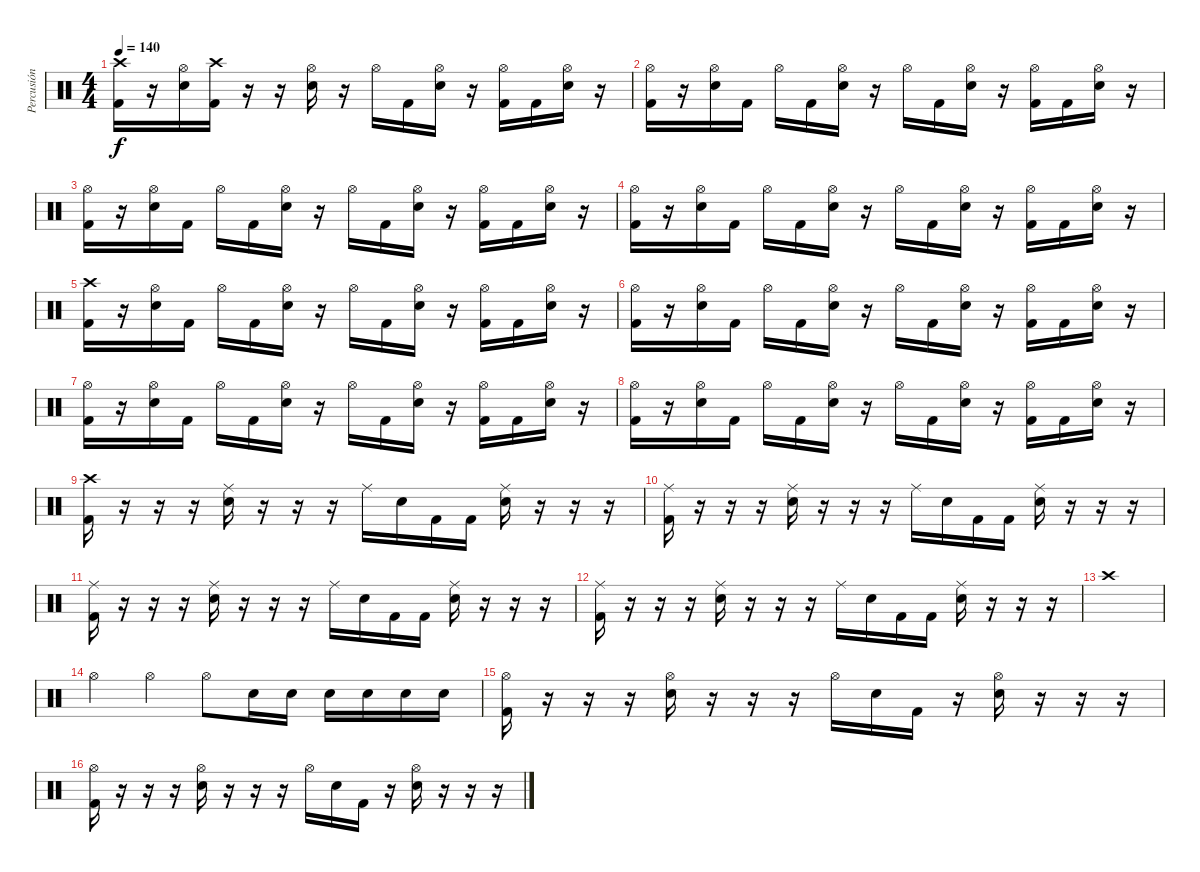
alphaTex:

\track ("Percusión" "Percusión") {instrument percussion}
\staff {score}
\articulation defaults
\ts (4 4)
\tempo 140
\clef neutral
\ks c
("Crash high (hit)" "Kick (hit) 2").16{dy f} r.16 ("Hi-Hat (open)" "Snare (hit) 2").16 ("Crash high (hit)" "Kick (hit) 2").16 r.16 r.16 ("Hi-Hat (open)" "Snare (hit) 2").16 r.16 "Hi-Hat (open)".16 "Kick (hit) 2".16 ("Hi-Hat (open)" "Snare (hit) 2").16 r.16 ("Hi-Hat (open)" "Kick (hit) 2").16 "Kick (hit) 2".16 ("Hi-Hat (open)" "Snare (hit) 2").16 r.16 |
("Hi-Hat (open)" "Kick (hit) 2").16 r.16 ("Hi-Hat (open)" "Snare (hit) 2").16 "Kick (hit) 2".16 "Hi-Hat (open)".16 "Kick (hit) 2".16 ("Hi-Hat (open)" "Snare (hit) 2").16 r.16 "Hi-Hat (open)".16 "Kick (hit) 2".16 ("Hi-Hat (open)" "Snare (hit) 2").16 r.16 ("Hi-Hat (open)" "Kick (hit) 2").16 "Kick (hit) 2".16 ("Hi-Hat (open)" "Snare (hit) 2").16 r.16 |
("Hi-Hat (open)" "Kick (hit) 2").16 r.16 ("Hi-Hat (open)" "Snare (hit) 2").16 "Kick (hit) 2".16 "Hi-Hat (open)".16 "Kick (hit) 2".16 ("Hi-Hat (open)" "Snare (hit) 2").16 r.16 "Hi-Hat (open)".16 "Kick (hit) 2".16 ("Hi-Hat (open)" "Snare (hit) 2").16 r.16 ("Hi-Hat (open)" "Kick (hit) 2").16 "Kick (hit) 2".16 ("Hi-Hat (open)" "Snare (hit) 2").16 r.16 |
("Hi-Hat (open)" "Kick (hit) 2").16 r.16 ("Hi-Hat (open)" "Snare (hit) 2").16 "Kick (hit) 2".16 "Hi-Hat (open)".16 "Kick (hit) 2".16 ("Hi-Hat (open)" "Snare (hit) 2").16 r.16 "Hi-Hat (open)".16 "Kick (hit) 2".16 ("Hi-Hat (open)" "Snare (hit) 2").16 r.16 ("Hi-Hat (open)" "Kick (hit) 2").16 "Kick (hit) 2".16 ("Hi-Hat (open)" "Snare (hit) 2").16 r.16 |
("Crash high (hit)" "Kick (hit) 2").16 r.16 ("Hi-Hat (open)" "Snare (hit) 2").16 "Kick (hit) 2".16 "Hi-Hat (open)".16 "Kick (hit) 2".16 ("Hi-Hat (open)" "Snare (hit) 2").16 r.16 "Hi-Hat (open)".16 "Kick (hit) 2".16 ("Hi-Hat (open)" "Snare (hit) 2").16 r.16 ("Hi-Hat (open)" "Kick (hit) 2").16 "Kick (hit) 2".16 ("Hi-Hat (open)" "Snare (hit) 2").16 r.16 |
("Hi-Hat (open)" "Kick (hit) 2").16 r.16 ("Hi-Hat (open)" "Snare (hit) 2").16 "Kick (hit) 2".16 "Hi-Hat (open)".16 "Kick (hit) 2".16 ("Hi-Hat (open)" "Snare (hit) 2").16 r.16 "Hi-Hat (open)".16 "Kick (hit) 2".16 ("Hi-Hat (open)" "Snare (hit) 2").16 r.16 ("Hi-Hat (open)" "Kick (hit) 2").16 "Kick (hit) 2".16 ("Hi-Hat (open)" "Snare (hit) 2").16 r.16 |
("Hi-Hat (open)" "Kick (hit) 2").16 r.16 ("Hi-Hat (open)" "Snare (hit) 2").16 "Kick (hit) 2".16 "Hi-Hat (open)".16 "Kick (hit) 2".16 ("Hi-Hat (open)" "Snare (hit) 2").16 r.16 "Hi-Hat (open)".16 "Kick (hit) 2".16 ("Hi-Hat (open)" "Snare (hit) 2").16 r.16 ("Hi-Hat (open)" "Kick (hit) 2").16 "Kick (hit) 2".16 ("Hi-Hat (open)" "Snare (hit) 2").16 r.16 |
("Hi-Hat (open)" "Kick (hit) 2").16 r.16 ("Hi-Hat (open)" "Snare (hit) 2").16 "Kick (hit) 2".16 "Hi-Hat (open)".16 "Kick (hit) 2".16 ("Hi-Hat (open)" "Snare (hit) 2").16 r.16 "Hi-Hat (open)".16 "Kick (hit) 2".16 ("Hi-Hat (open)" "Snare (hit) 2").16 r.16 ("Hi-Hat (open)" "Kick (hit) 2").16 "Kick (hit) 2".16 ("Hi-Hat (open)" "Snare (hit) 2").16 r.16 |
("Crash high (hit)" "Kick (hit) 2").16 r.16 r.16 r.16 ("Ride (middle)" "Snare (hit) 2").16 r.16 r.16 r.16 "Ride (middle)".16 "Snare (hit) 2".16 "Kick (hit) 2".16 "Kick (hit) 2".16 ("Ride (middle)" "Snare (hit) 2").16 r.16 r.16 r.16 |
("Ride (middle)" "Kick (hit) 2").16 r.16 r.16 r.16 ("Ride (middle)" "Snare (hit) 2").16 r.16 r.16 r.16 "Ride (middle)".16 "Snare (hit) 2".16 "Kick (hit) 2".16 "Kick (hit) 2".16 ("Ride (middle)" "Snare (hit) 2").16 r.16 r.16 r.16 |
("Ride (middle)" "Kick (hit) 2").16 r.16 r.16 r.16 ("Ride (middle)" "Snare (hit) 2").16 r.16 r.16 r.16 "Ride (middle)".16 "Snare (hit) 2".16 "Kick (hit) 2".16 "Kick (hit) 2".16 ("Ride (middle)" "Snare (hit) 2").16 r.16 r.16 r.16 |
("Ride (middle)" "Kick (hit) 2").16 r.16 r.16 r.16 ("Ride (middle)" "Snare (hit) 2").16 r.16 r.16 r.16 "Ride (middle)".16 "Snare (hit) 2".16 "Kick (hit) 2".16 "Kick (hit) 2".16 ("Ride (middle)" "Snare (hit) 2").16 r.16 r.16 r.16 |
"Crash high (hit)".1 |
"Hi-Hat (open)".4 "Hi-Hat (open)".4 "Hi-Hat (open)".8 "Snare (hit) 2".16 "Snare (hit) 2".16 "Snare (hit) 2".16 "Snare (hit) 2".16 "Snare (hit) 2".16 "Snare (hit) 2".16 |
("Hi-Hat (open)" "Kick (hit) 2").16 r.16 r.16 r.16 ("Hi-Hat (open)" "Snare (hit) 2").16 r.16 r.16 r.16 "Hi-Hat (open)".16 "Snare (hit) 2".16 "Kick (hit) 2".16 r.16 ("Hi-Hat (open)" "Snare (hit) 2").16 r.16 r.16 r.16 |
("Hi-Hat (open)" "Kick (hit) 2").16 r.16 r.16 r.16 ("Hi-Hat (open)" "Snare (hit) 2").16 r.16 r.16 r.16 "Hi-Hat (open)".16 "Snare (hit) 2".16 "Kick (hit) 2".16 r.16 ("Hi-Hat (open)" "Snare (hit) 2").16 r.16 r.16 r.16
